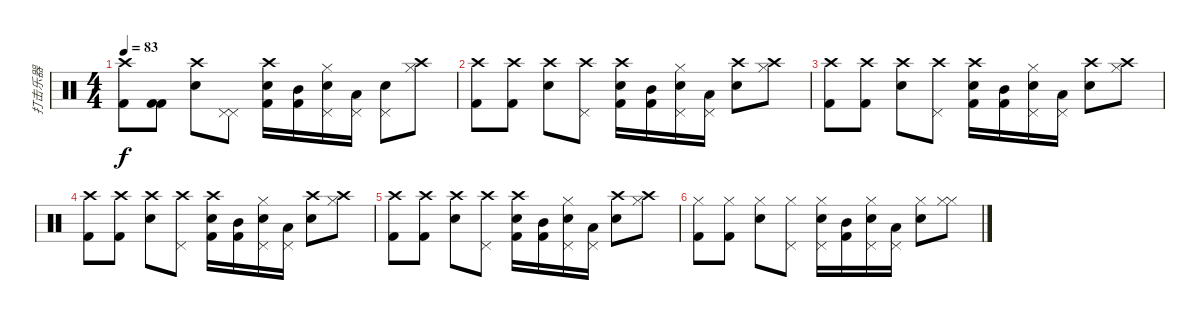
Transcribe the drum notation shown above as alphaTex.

\track ("打击乐器" "打击乐器") {instrument percussion}
\staff {score}
\articulation defaults
\ts (4 4)
\tempo 83
\clef neutral
\ks c
("Crash high (hit)" "Kick (hit) 2").8{dy f} ("Kick (hit) 2" "Kick (hit) 2").8 ("Crash high (hit)" "Snare (hit) 2").8 ("Pedal Hi-Hat (hit)" "Pedal Hi-Hat (hit)").8 ("Electric Snare (hit)" "Kick (hit) 2" "Crash high (hit)").16 ("Kick (hit) 2" "Mid Tom (hit)").16 ("Electric Snare (hit)" "Hi-Hat (closed)" "Pedal Hi-Hat (hit)").16 ("Pedal Hi-Hat (hit)" "Low Floor Tom (hit)").16 ("Pedal Hi-Hat (hit)" "Snare (hit) 2").8 ("Crash high (hit)" "Hi-Hat (closed)").8 |
("Crash high (hit)" "Kick (hit) 2").8 ("Crash high (hit)" "Kick (hit) 2").8 ("Crash high (hit)" "Snare (hit) 2").8 ("Crash high (hit)" "Pedal Hi-Hat (hit)").8 ("Electric Snare (hit)" "Kick (hit) 2" "Crash high (hit)").16 ("Kick (hit) 2" "Mid Tom (hit)").16 ("Electric Snare (hit)" "Hi-Hat (closed)" "Pedal Hi-Hat (hit)").16 ("Pedal Hi-Hat (hit)" "Low Floor Tom (hit)").16 ("Crash high (hit)" "Snare (hit) 2").8 ("Crash high (hit)" "Hi-Hat (closed)").8 |
("Crash high (hit)" "Kick (hit) 2").8 ("Crash high (hit)" "Kick (hit) 2").8 ("Crash high (hit)" "Snare (hit) 2").8 ("Crash high (hit)" "Pedal Hi-Hat (hit)").8 ("Electric Snare (hit)" "Kick (hit) 2" "Crash high (hit)").16 ("Kick (hit) 2" "Mid Tom (hit)").16 ("Electric Snare (hit)" "Hi-Hat (closed)" "Pedal Hi-Hat (hit)").16 ("Pedal Hi-Hat (hit)" "Low Floor Tom (hit)").16 ("Crash high (hit)" "Snare (hit) 2").8 ("Crash high (hit)" "Hi-Hat (closed)").8 |
("Crash high (hit)" "Kick (hit) 2").8 ("Crash high (hit)" "Kick (hit) 2").8 ("Crash high (hit)" "Snare (hit) 2").8 ("Crash high (hit)" "Pedal Hi-Hat (hit)").8 ("Electric Snare (hit)" "Kick (hit) 2" "Crash high (hit)").16 ("Kick (hit) 2" "Mid Tom (hit)").16 ("Electric Snare (hit)" "Hi-Hat (closed)" "Pedal Hi-Hat (hit)").16 ("Pedal Hi-Hat (hit)" "Low Floor Tom (hit)").16 ("Crash high (hit)" "Snare (hit) 2").8 ("Crash high (hit)" "Hi-Hat (closed)").8 |
("Crash high (hit)" "Kick (hit) 2").8 ("Crash high (hit)" "Kick (hit) 2").8 ("Crash high (hit)" "Snare (hit) 2").8 ("Crash high (hit)" "Pedal Hi-Hat (hit)").8 ("Electric Snare (hit)" "Kick (hit) 2" "Crash high (hit)").16 ("Kick (hit) 2" "Mid Tom (hit)").16 ("Electric Snare (hit)" "Hi-Hat (closed)" "Pedal Hi-Hat (hit)").16 ("Pedal Hi-Hat (hit)" "Low Floor Tom (hit)").16 ("Crash high (hit)" "Snare (hit) 2").8 ("Crash high (hit)" "Hi-Hat (closed)").8 |
("Hi-Hat (closed)" "Kick (hit) 2").8 ("Hi-Hat (closed)" "Kick (hit) 2").8 ("Hi-Hat (closed)" "Snare (hit) 2").8 ("Hi-Hat (closed)" "Pedal Hi-Hat (hit)").8 ("Hi-Hat (closed)" "Metronome (bell)" "Pedal Hi-Hat (hit)").16 ("Kick (hit) 2" "Mid Tom (hit)").16 ("Electric Snare (hit)" "Hi-Hat (closed)" "Pedal Hi-Hat (hit)").16 ("Pedal Hi-Hat (hit)" "Low Floor Tom (hit)").16 ("Hi-Hat (closed)" "Snare (hit) 2").8 ("Hi-Hat (closed)" "Hi-Hat (closed)").8
